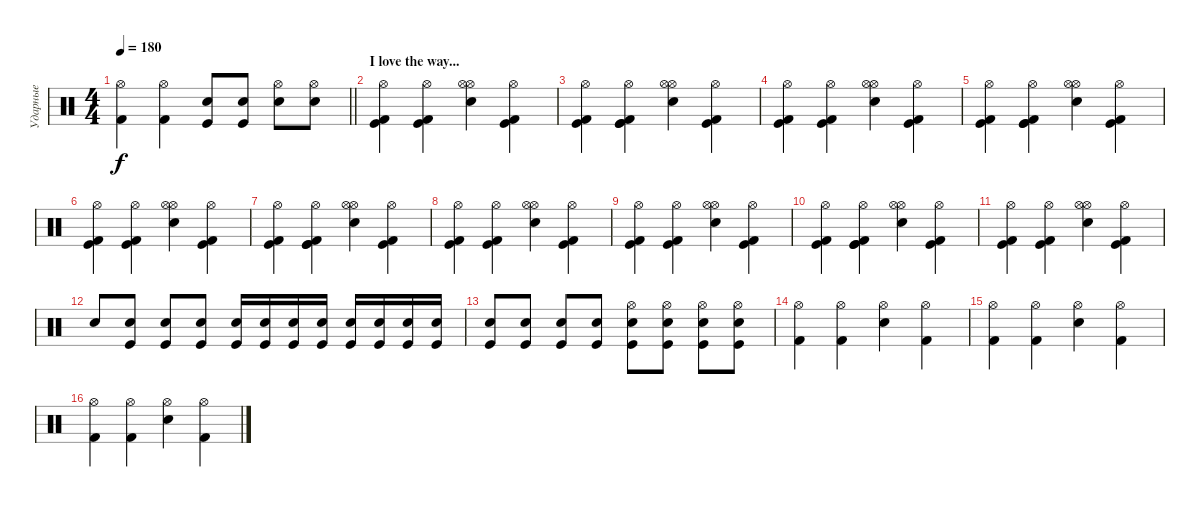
\track ("Ударные" "Ударные") {instrument percussion}
\staff {score}
\articulation defaults
\ts (4 4)
\tempo 180
\clef neutral
\barLineRight lightlight
\ks c
("Hi-Hat (open)" "Kick (hit) 2").4{dy f} ("Hi-Hat (open)" "Kick (hit) 2").4 ("Kick (hit)" "Snare (hit) 2").8 ("Snare (hit) 2" "Kick (hit)").8 ("Snare (hit) 2" "Hi-Hat (open)").8 ("Hi-Hat (open)" "Snare (hit) 2").8 |
\section ("" "I love the way...")
("Hi-Hat (open)" "Kick (hit) 2" "Kick (hit)").4 ("Hi-Hat (open)" "Kick (hit) 2" "Kick (hit)").4 ("Electric Snare (hit)" "Hi-Hat (open)" "Hi-Hat (open)").4 ("Hi-Hat (open)" "Kick (hit) 2" "Kick (hit)").4 |
("Hi-Hat (open)" "Kick (hit) 2" "Kick (hit)").4 ("Hi-Hat (open)" "Kick (hit) 2" "Kick (hit)" "Kick (hit)").4 ("Electric Snare (hit)" "Hi-Hat (open)" "Hi-Hat (open)").4 ("Hi-Hat (open)" "Kick (hit) 2" "Kick (hit)").4 |
("Hi-Hat (open)" "Kick (hit) 2" "Kick (hit)").4 ("Hi-Hat (open)" "Kick (hit) 2" "Kick (hit)").4 ("Electric Snare (hit)" "Hi-Hat (open)" "Hi-Hat (open)").4 ("Hi-Hat (open)" "Kick (hit) 2" "Kick (hit)").4 |
("Hi-Hat (open)" "Kick (hit) 2" "Kick (hit)").4 ("Hi-Hat (open)" "Kick (hit) 2" "Kick (hit)" "Kick (hit)").4 ("Electric Snare (hit)" "Hi-Hat (open)" "Hi-Hat (open)").4 ("Hi-Hat (open)" "Kick (hit) 2" "Kick (hit)").4 |
("Hi-Hat (open)" "Kick (hit) 2" "Kick (hit)").4 ("Hi-Hat (open)" "Kick (hit) 2" "Kick (hit)").4 ("Electric Snare (hit)" "Hi-Hat (open)" "Hi-Hat (open)").4 ("Hi-Hat (open)" "Kick (hit) 2" "Kick (hit)").4 |
("Hi-Hat (open)" "Kick (hit) 2" "Kick (hit)").4 ("Hi-Hat (open)" "Kick (hit) 2" "Kick (hit)" "Kick (hit)").4 ("Electric Snare (hit)" "Hi-Hat (open)" "Hi-Hat (open)").4 ("Hi-Hat (open)" "Kick (hit) 2" "Kick (hit)").4 |
("Hi-Hat (open)" "Kick (hit) 2" "Kick (hit)").4 ("Hi-Hat (open)" "Kick (hit) 2" "Kick (hit)").4 ("Electric Snare (hit)" "Hi-Hat (open)" "Hi-Hat (open)").4 ("Hi-Hat (open)" "Kick (hit) 2" "Kick (hit)").4 |
("Hi-Hat (open)" "Kick (hit) 2" "Kick (hit)").4 ("Hi-Hat (open)" "Kick (hit) 2" "Kick (hit)").4 ("Electric Snare (hit)" "Hi-Hat (open)" "Hi-Hat (open)").4 ("Hi-Hat (open)" "Kick (hit) 2" "Kick (hit)").4 |
("Hi-Hat (open)" "Kick (hit) 2" "Kick (hit)").4 ("Hi-Hat (open)" "Kick (hit) 2" "Kick (hit)" "Kick (hit)").4 ("Electric Snare (hit)" "Hi-Hat (open)" "Hi-Hat (open)").4 ("Hi-Hat (open)" "Kick (hit) 2" "Kick (hit)").4 |
("Hi-Hat (open)" "Kick (hit) 2" "Kick (hit)").4 ("Hi-Hat (open)" "Kick (hit) 2" "Kick (hit)").4 ("Electric Snare (hit)" "Hi-Hat (open)" "Hi-Hat (open)").4 ("Hi-Hat (open)" "Kick (hit) 2" "Kick (hit)").4 |
"Snare (hit) 2".8 ("Kick (hit)" "Snare (hit) 2").8 ("Snare (hit) 2" "Kick (hit)").8 ("Kick (hit)" "Snare (hit) 2").8 ("Snare (hit) 2" "Kick (hit)").16 ("Kick (hit)" "Snare (hit) 2").16 ("Snare (hit) 2" "Kick (hit)").16 ("Kick (hit)" "Snare (hit) 2").16 ("Snare (hit) 2" "Kick (hit)").16 ("Kick (hit)" "Snare (hit) 2").16 ("Snare (hit) 2" "Kick (hit)").16 ("Kick (hit)" "Snare (hit) 2").16 |
("Snare (hit) 2" "Kick (hit)").8 ("Kick (hit)" "Snare (hit) 2").8 ("Snare (hit) 2" "Kick (hit)").8 ("Kick (hit)" "Snare (hit) 2").8 ("Snare (hit) 2" "Kick (hit)" "Hi-Hat (open)").8 ("Hi-Hat (open)" "Kick (hit)" "Snare (hit) 2").8 ("Snare (hit) 2" "Kick (hit)" "Hi-Hat (open)").8 ("Hi-Hat (open)" "Kick (hit)" "Snare (hit) 2").8 |
("Hi-Hat (open)" "Kick (hit) 2").4 ("Hi-Hat (open)" "Kick (hit) 2").4 ("Electric Snare (hit)" "Hi-Hat (open)").4 ("Hi-Hat (open)" "Kick (hit) 2").4 |
("Hi-Hat (open)" "Kick (hit) 2").4 ("Hi-Hat (open)" "Kick (hit) 2").4 ("Electric Snare (hit)" "Hi-Hat (open)").4 ("Hi-Hat (open)" "Kick (hit) 2").4 |
("Hi-Hat (open)" "Kick (hit) 2").4 ("Hi-Hat (open)" "Kick (hit) 2").4 ("Electric Snare (hit)" "Hi-Hat (open)").4 ("Hi-Hat (open)" "Kick (hit) 2").4
